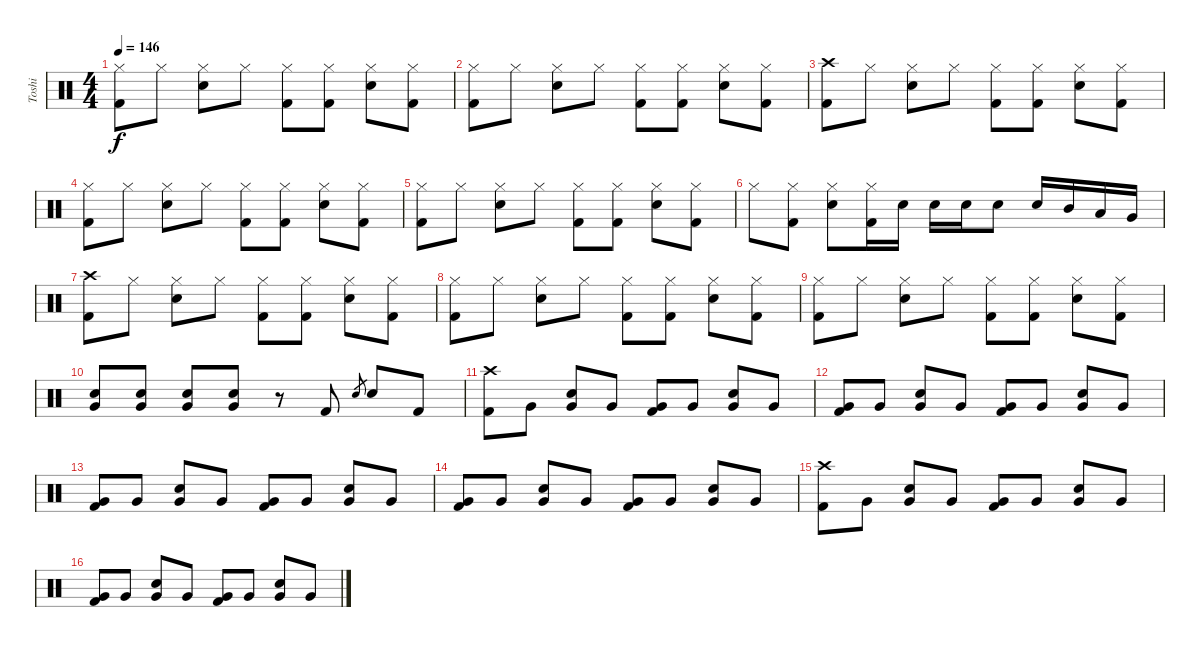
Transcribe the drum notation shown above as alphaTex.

\track ("Toshi" "Toshi") {instrument percussion}
\staff {score}
\articulation defaults
\ts (4 4)
\tempo 146
\clef neutral
\ks c
("Hi-Hat (closed)" "Kick (hit) 2").8{dy f} "Hi-Hat (closed)".8 ("Hi-Hat (closed)" "Electric Snare (hit)").8 "Hi-Hat (closed)".8 ("Hi-Hat (closed)" "Kick (hit) 2").8 ("Hi-Hat (closed)" "Kick (hit) 2").8 ("Hi-Hat (closed)" "Electric Snare (hit)").8 ("Hi-Hat (closed)" "Kick (hit) 2").8 |
("Hi-Hat (closed)" "Kick (hit) 2").8 "Hi-Hat (closed)".8 ("Hi-Hat (closed)" "Electric Snare (hit)").8 "Hi-Hat (closed)".8 ("Hi-Hat (closed)" "Kick (hit) 2").8 ("Hi-Hat (closed)" "Kick (hit) 2").8 ("Hi-Hat (closed)" "Electric Snare (hit)").8 ("Hi-Hat (closed)" "Kick (hit) 2").8 |
("Crash high (hit)" "Kick (hit) 2").8 "Hi-Hat (closed)".8 ("Hi-Hat (closed)" "Electric Snare (hit)").8 "Hi-Hat (closed)".8 ("Hi-Hat (closed)" "Kick (hit) 2").8 ("Hi-Hat (closed)" "Kick (hit) 2").8 ("Hi-Hat (closed)" "Electric Snare (hit)").8 ("Hi-Hat (closed)" "Kick (hit) 2").8 |
("Hi-Hat (closed)" "Kick (hit) 2").8 "Hi-Hat (closed)".8 ("Hi-Hat (closed)" "Electric Snare (hit)").8 "Hi-Hat (closed)".8 ("Hi-Hat (closed)" "Kick (hit) 2").8 ("Hi-Hat (closed)" "Kick (hit) 2").8 ("Hi-Hat (closed)" "Electric Snare (hit)").8 ("Hi-Hat (closed)" "Kick (hit) 2").8 |
("Hi-Hat (closed)" "Kick (hit) 2").8 "Hi-Hat (closed)".8 ("Hi-Hat (closed)" "Electric Snare (hit)").8 "Hi-Hat (closed)".8 ("Hi-Hat (closed)" "Kick (hit) 2").8 ("Hi-Hat (closed)" "Kick (hit) 2").8 ("Hi-Hat (closed)" "Electric Snare (hit)").8 ("Hi-Hat (closed)" "Kick (hit) 2").8 |
"Hi-Hat (closed)".8 ("Hi-Hat (closed)" "Kick (hit) 2").8 ("Hi-Hat (closed)" "Electric Snare (hit)").8 ("Hi-Hat (closed)" "Kick (hit) 2").16 "Electric Snare (hit)".16 "Electric Snare (hit)".16 "Electric Snare (hit)".16 "Electric Snare (hit)".8 "Electric Snare (hit)".16 "Mid Tom (hit)".16 "Low Tom (hit)".16 "Very Low Tom (hit)".16 |
("Crash high (hit)" "Kick (hit) 2").8 "Hi-Hat (closed)".8 ("Hi-Hat (closed)" "Electric Snare (hit)").8 "Hi-Hat (closed)".8 ("Hi-Hat (closed)" "Kick (hit) 2").8 ("Hi-Hat (closed)" "Kick (hit) 2").8 ("Hi-Hat (closed)" "Electric Snare (hit)").8 ("Hi-Hat (closed)" "Kick (hit) 2").8 |
("Hi-Hat (closed)" "Kick (hit) 2").8 "Hi-Hat (closed)".8 ("Hi-Hat (closed)" "Electric Snare (hit)").8 "Hi-Hat (closed)".8 ("Hi-Hat (closed)" "Kick (hit) 2").8 ("Hi-Hat (closed)" "Kick (hit) 2").8 ("Hi-Hat (closed)" "Electric Snare (hit)").8 ("Hi-Hat (closed)" "Kick (hit) 2").8 |
("Hi-Hat (closed)" "Kick (hit) 2").8 "Hi-Hat (closed)".8 ("Hi-Hat (closed)" "Electric Snare (hit)").8 "Hi-Hat (closed)".8 ("Hi-Hat (closed)" "Kick (hit) 2").8 ("Hi-Hat (closed)" "Kick (hit) 2").8 ("Hi-Hat (closed)" "Electric Snare (hit)").8 ("Hi-Hat (closed)" "Kick (hit) 2").8 |
("Very Low Tom (hit)" "Electric Snare (hit)").8 ("Very Low Tom (hit)" "Electric Snare (hit)").8 ("Very Low Tom (hit)" "Electric Snare (hit)").8 ("Very Low Tom (hit)" "Electric Snare (hit)").8 r.8 "Kick (hit) 2".8 "Electric Snare (hit)".8{gr} "Electric Snare (hit)".8 "Kick (hit) 2".8 |
("Crash high (hit)" "Kick (hit) 2").8 "Very Low Tom (hit)".8 ("Very Low Tom (hit)" "Electric Snare (hit)").8 "Very Low Tom (hit)".8 ("Very Low Tom (hit)" "Kick (hit) 2").8 "Very Low Tom (hit)".8 ("Very Low Tom (hit)" "Electric Snare (hit)").8 "Very Low Tom (hit)".8 |
("Very Low Tom (hit)" "Kick (hit) 2").8 "Very Low Tom (hit)".8 ("Very Low Tom (hit)" "Electric Snare (hit)").8 "Very Low Tom (hit)".8 ("Very Low Tom (hit)" "Kick (hit) 2").8 "Very Low Tom (hit)".8 ("Very Low Tom (hit)" "Electric Snare (hit)").8 "Very Low Tom (hit)".8 |
("Very Low Tom (hit)" "Kick (hit) 2").8 "Very Low Tom (hit)".8 ("Very Low Tom (hit)" "Electric Snare (hit)").8 "Very Low Tom (hit)".8 ("Very Low Tom (hit)" "Kick (hit) 2").8 "Very Low Tom (hit)".8 ("Very Low Tom (hit)" "Electric Snare (hit)").8 "Very Low Tom (hit)".8 |
("Very Low Tom (hit)" "Kick (hit) 2").8 "Very Low Tom (hit)".8 ("Very Low Tom (hit)" "Electric Snare (hit)").8 "Very Low Tom (hit)".8 ("Very Low Tom (hit)" "Kick (hit) 2").8 "Very Low Tom (hit)".8 ("Very Low Tom (hit)" "Electric Snare (hit)").8 "Very Low Tom (hit)".8 |
("Crash high (hit)" "Kick (hit) 2").8 "Very Low Tom (hit)".8 ("Very Low Tom (hit)" "Electric Snare (hit)").8 "Very Low Tom (hit)".8 ("Very Low Tom (hit)" "Kick (hit) 2").8 "Very Low Tom (hit)".8 ("Very Low Tom (hit)" "Electric Snare (hit)").8 "Very Low Tom (hit)".8 |
("Very Low Tom (hit)" "Kick (hit) 2").8 "Very Low Tom (hit)".8 ("Very Low Tom (hit)" "Electric Snare (hit)").8 "Very Low Tom (hit)".8 ("Very Low Tom (hit)" "Kick (hit) 2").8 "Very Low Tom (hit)".8 ("Very Low Tom (hit)" "Electric Snare (hit)").8 "Very Low Tom (hit)".8
